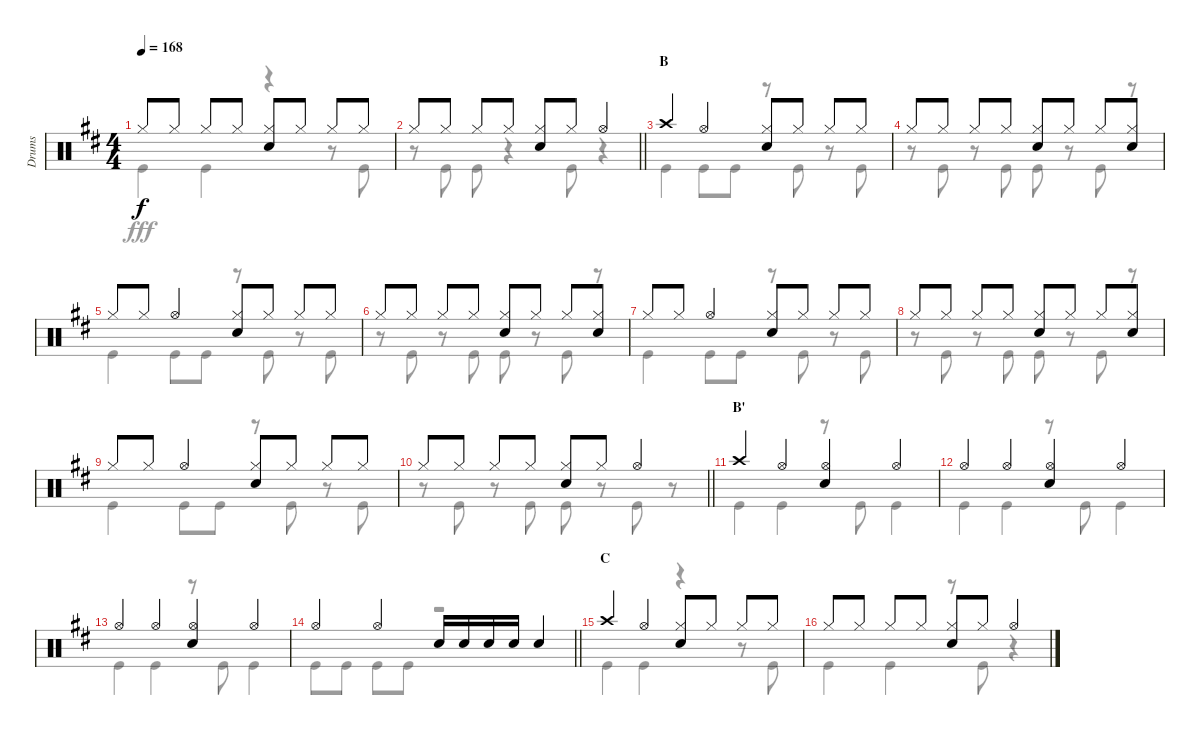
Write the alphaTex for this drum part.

\track ("Drums" "Drums") {instrument percussion}
\staff {score}
\articulation defaults
\voice
\ts (4 4)
\tempo 168
\clef neutral
\ks d "Hi-Hat (closed)".8{dy f} "Hi-Hat (closed)".8 "Hi-Hat (closed)".8 "Hi-Hat (closed)".8
("Hi-Hat (closed)" "Snare (hit) 2").8 "Hi-Hat (closed)".8 "Hi-Hat (closed)".8 "Hi-Hat (closed)".8 |
\barLineRight lightlight "Hi-Hat (closed)".8 "Hi-Hat (closed)".8 "Hi-Hat (closed)".8 "Hi-Hat (closed)".8
("Hi-Hat (closed)" "Snare (hit) 2").8 "Hi-Hat (closed)".8 "Hi-Hat (open)".4 |
\section ("" "B")
"Crash high (hit)".4 "Hi-Hat (open)".4 ("Hi-Hat (closed)" "Snare (hit) 2").8 "Hi-Hat (closed)".8 "Hi-Hat (closed)".8 "Hi-Hat (closed)".8 |
"Hi-Hat (closed)".8 "Hi-Hat (closed)".8 "Hi-Hat (closed)".8 "Hi-Hat (closed)".8 ("Hi-Hat (closed)" "Snare (hit) 2").8 "Hi-Hat (closed)".8 "Hi-Hat (closed)".8 ("Hi-Hat (closed)" "Snare (hit) 2").8 |
"Hi-Hat (closed)".8 "Hi-Hat (closed)".8 "Hi-Hat (open)".4 ("Hi-Hat (closed)" "Snare (hit) 2").8 "Hi-Hat (closed)".8 "Hi-Hat (closed)".8 "Hi-Hat (closed)".8 |
"Hi-Hat (closed)".8 "Hi-Hat (closed)".8 "Hi-Hat (closed)".8 "Hi-Hat (closed)".8 ("Hi-Hat (closed)" "Snare (hit) 2").8 "Hi-Hat (closed)".8 "Hi-Hat (closed)".8 ("Hi-Hat (closed)" "Snare (hit) 2").8 |
"Hi-Hat (closed)".8 "Hi-Hat (closed)".8 "Hi-Hat (open)".4 ("Hi-Hat (closed)" "Snare (hit) 2").8 "Hi-Hat (closed)".8 "Hi-Hat (closed)".8 "Hi-Hat (closed)".8 |
"Hi-Hat (closed)".8 "Hi-Hat (closed)".8 "Hi-Hat (closed)".8 "Hi-Hat (closed)".8 ("Hi-Hat (closed)" "Snare (hit) 2").8 "Hi-Hat (closed)".8 "Hi-Hat (closed)".8 ("Hi-Hat (closed)" "Snare (hit) 2").8 |
"Hi-Hat (closed)".8 "Hi-Hat (closed)".8 "Hi-Hat (open)".4 ("Hi-Hat (closed)" "Snare (hit) 2").8 "Hi-Hat (closed)".8 "Hi-Hat (closed)".8 "Hi-Hat (closed)".8 |
\barLineRight lightlight "Hi-Hat (closed)".8 "Hi-Hat (closed)".8 "Hi-Hat (closed)".8 "Hi-Hat (closed)".8
("Hi-Hat (closed)" "Snare (hit) 2").8 "Hi-Hat (closed)".8 "Hi-Hat (open)".4 |
\section ("" "B'")
"Crash high (hit)".4 "Hi-Hat (open)".4 ("Hi-Hat (open)" "Snare (hit) 2").4 "Hi-Hat (open)".4 |
"Hi-Hat (open)".4 "Hi-Hat (open)".4 ("Hi-Hat (open)" "Snare (hit) 2").4 "Hi-Hat (open)".4 |
"Hi-Hat (open)".4 "Hi-Hat (open)".4 ("Hi-Hat (open)" "Snare (hit) 2").4 "Hi-Hat (open)".4 |
\barLineRight lightlight "Hi-Hat (open)".4 "Hi-Hat (open)".4 "Snare (hit) 2".16 "Snare (hit) 2".16 "Snare (hit) 2".16 "Snare (hit) 2".16 "Snare (hit) 2".4
|
\section ("" "C")
"Crash high (hit)".4 "Hi-Hat (open)".4 ("Hi-Hat (closed)" "Snare (hit) 2").8 "Hi-Hat (closed)".8 "Hi-Hat (closed)".8 "Hi-Hat (closed)".8 |
"Hi-Hat (closed)".8 "Hi-Hat (closed)".8 "Hi-Hat (closed)".8 "Hi-Hat (closed)".8 ("Hi-Hat (closed)" "Snare (hit) 2").8 "Hi-Hat (closed)".8 "Hi-Hat (open)".4
\voice
\clef neutral
\ottava regular
\simile none
\ks d "Kick (hit)".4{dy fff} "Kick (hit)".4
r.4 r.8 "Kick (hit)".8 |
\barLineRight lightlight
r.8 "Kick (hit)".8 "Kick (hit)".8 r.4 "Kick (hit)".8 r.4 |
"Kick (hit)".4 "Kick (hit)".8 "Kick (hit)".8 r.8 "Kick (hit)".8 r.8 "Kick (hit)".8 |
r.8 "Kick (hit)".8 r.8 "Kick (hit)".8 "Kick (hit)".8 r.8 "Kick (hit)".8 r.8 |
"Kick (hit)".4 "Kick (hit)".8 "Kick (hit)".8 r.8 "Kick (hit)".8 r.8 "Kick (hit)".8 |
r.8 "Kick (hit)".8 r.8 "Kick (hit)".8 "Kick (hit)".8 r.8 "Kick (hit)".8 r.8 |
"Kick (hit)".4 "Kick (hit)".8 "Kick (hit)".8 r.8 "Kick (hit)".8 r.8 "Kick (hit)".8 |
r.8 "Kick (hit)".8 r.8 "Kick (hit)".8 "Kick (hit)".8 r.8 "Kick (hit)".8 r.8 |
"Kick (hit)".4 "Kick (hit)".8 "Kick (hit)".8 r.8 "Kick (hit)".8 r.8 "Kick (hit)".8 |
\barLineRight lightlight
r.8 "Kick (hit)".8 r.8 "Kick (hit)".8 "Kick (hit)".8 r.8 "Kick (hit)".8 r.8 |
"Kick (hit)".4 "Kick (hit)".4 r.8 "Kick (hit)".8 "Kick (hit)".4 |
"Kick (hit)".4 "Kick (hit)".4 r.8 "Kick (hit)".8 "Kick (hit)".4 |
"Kick (hit)".4 "Kick (hit)".4 r.8 "Kick (hit)".8 "Kick (hit)".4 |
\barLineRight lightlight "Kick (hit)".8 "Kick (hit)".8 "Kick (hit)".8 "Kick (hit)".8
r.2 |
"Kick (hit)".4 "Kick (hit)".4 r.4 r.8 "Kick (hit)".8 |
"Kick (hit)".4 "Kick (hit)".4 r.8 "Kick (hit)".8 r.4
